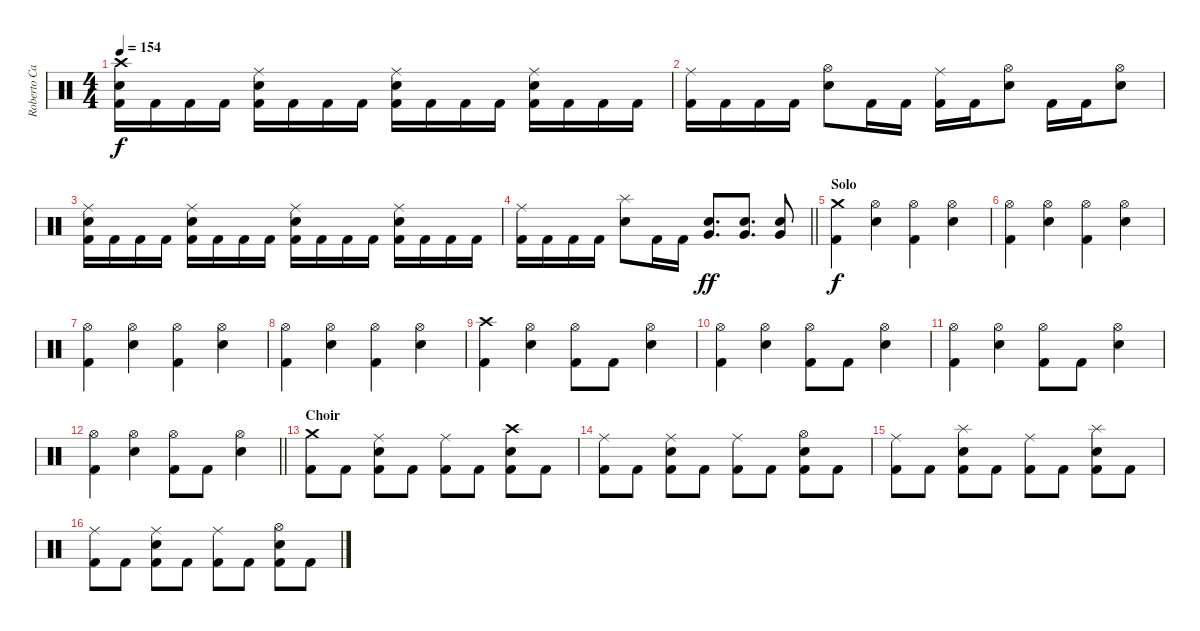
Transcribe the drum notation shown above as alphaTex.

\track ("Roberto Cappa - Drums" "Roberto Ca") {instrument percussion}
\staff
\articulation defaults
\ts (4 4)
\tempo 154
\clef neutral
\ks c
("Crash high (hit)" "Kick (hit) 2" "Electric Snare (hit)").16{dy f} "Kick (hit) 2".16 "Kick (hit) 2".16 "Kick (hit) 2".16 ("Ride (middle)" "Kick (hit) 2" "Electric Snare (hit)").16 "Kick (hit) 2".16 "Kick (hit) 2".16 "Kick (hit) 2".16 ("Ride (middle)" "Kick (hit) 2" "Electric Snare (hit)").16 "Kick (hit) 2".16 "Kick (hit) 2".16 "Kick (hit) 2".16 ("Ride (middle)" "Kick (hit) 2" "Electric Snare (hit)").16 "Kick (hit) 2".16 "Kick (hit) 2".16 "Kick (hit) 2".16 |
("Ride (middle)" "Kick (hit) 2").16 "Kick (hit) 2".16 "Kick (hit) 2".16 "Kick (hit) 2".16 ("Hi-Hat (open)" "Electric Snare (hit)").8 "Kick (hit) 2".16 "Kick (hit) 2".16 ("Ride (middle)" "Kick (hit) 2").16 "Kick (hit) 2".16 ("Hi-Hat (open)" "Electric Snare (hit)").8 "Kick (hit) 2".16 "Kick (hit) 2".16 ("Hi-Hat (open)" "Electric Snare (hit)").8 |
("Ride (middle)" "Kick (hit) 2" "Electric Snare (hit)").16 "Kick (hit) 2".16 "Kick (hit) 2".16 "Kick (hit) 2".16 ("Ride (middle)" "Kick (hit) 2" "Electric Snare (hit)").16 "Kick (hit) 2".16 "Kick (hit) 2".16 "Kick (hit) 2".16 ("Ride (middle)" "Kick (hit) 2" "Electric Snare (hit)").16 "Kick (hit) 2".16 "Kick (hit) 2".16 "Kick (hit) 2".16 ("Ride (middle)" "Kick (hit) 2" "Electric Snare (hit)").16 "Kick (hit) 2".16 "Kick (hit) 2".16 "Kick (hit) 2".16 |
\barLineRight lightlight
("Ride (middle)" "Kick (hit) 2").16 "Kick (hit) 2".16 "Kick (hit) 2".16 "Kick (hit) 2".16 ("Splash (hit)" "Electric Snare (hit)").8 "Kick (hit) 2".16 "Kick (hit) 2".16 ("Very Low Tom (hit)" "Electric Snare (hit)").8{d dy ff} ("Very Low Tom (hit)" "Electric Snare (hit)").8{d} ("Very Low Tom (hit)" "Electric Snare (hit)").8 |
\section ("" "Solo")
("Crash medium (hit)" "Kick (hit) 2").4{dy f} ("Hi-Hat (open)" "Electric Snare (hit)").4 ("Hi-Hat (open)" "Kick (hit) 2").4 ("Hi-Hat (open)" "Electric Snare (hit)").4 |
("Hi-Hat (open)" "Kick (hit) 2").4 ("Hi-Hat (open)" "Electric Snare (hit)").4 ("Hi-Hat (open)" "Kick (hit) 2").4 ("Hi-Hat (open)" "Electric Snare (hit)").4 |
("Hi-Hat (open)" "Kick (hit) 2").4 ("Hi-Hat (open)" "Electric Snare (hit)").4 ("Hi-Hat (open)" "Kick (hit) 2").4 ("Hi-Hat (open)" "Electric Snare (hit)").4 |
("Hi-Hat (open)" "Kick (hit) 2").4 ("Hi-Hat (open)" "Electric Snare (hit)").4 ("Hi-Hat (open)" "Kick (hit) 2").4 ("Hi-Hat (open)" "Electric Snare (hit)").4 |
("Crash high (hit)" "Kick (hit) 2").4 ("Hi-Hat (open)" "Electric Snare (hit)").4 ("Hi-Hat (open)" "Kick (hit) 2").8 "Kick (hit) 2".8 ("Hi-Hat (open)" "Electric Snare (hit)").4 |
("Hi-Hat (open)" "Kick (hit) 2").4 ("Hi-Hat (open)" "Electric Snare (hit)").4 ("Hi-Hat (open)" "Kick (hit) 2").8 "Kick (hit) 2".8 ("Hi-Hat (open)" "Electric Snare (hit)").4 |
("Hi-Hat (open)" "Kick (hit) 2").4 ("Hi-Hat (open)" "Electric Snare (hit)").4 ("Hi-Hat (open)" "Kick (hit) 2").8 "Kick (hit) 2".8 ("Hi-Hat (open)" "Electric Snare (hit)").4 |
\barLineRight lightlight
("Hi-Hat (open)" "Kick (hit) 2").4 ("Hi-Hat (open)" "Electric Snare (hit)").4 ("Hi-Hat (open)" "Kick (hit) 2").8 "Kick (hit) 2".8 ("Hi-Hat (open)" "Electric Snare (hit)").4 |
\section ("" "Choir")
("Crash medium (hit)" "Kick (hit) 2").8 "Kick (hit) 2".8 ("Ride (middle)" "Kick (hit) 2" "Electric Snare (hit)").8 "Kick (hit) 2".8 ("Ride (middle)" "Kick (hit) 2").8 "Kick (hit) 2".8 ("Crash high (hit)" "Kick (hit) 2" "Electric Snare (hit)").8 "Kick (hit) 2".8 |
("Ride (middle)" "Kick (hit) 2").8 "Kick (hit) 2".8 ("Ride (middle)" "Kick (hit) 2" "Electric Snare (hit)").8 "Kick (hit) 2".8 ("Ride (middle)" "Kick (hit) 2").8 "Kick (hit) 2".8 ("Hi-Hat (open)" "Kick (hit) 2" "Electric Snare (hit)").8 "Kick (hit) 2".8 |
("Ride (middle)" "Kick (hit) 2").8 "Kick (hit) 2".8 ("Splash (hit)" "Kick (hit) 2" "Electric Snare (hit)").8 "Kick (hit) 2".8 ("Ride (middle)" "Kick (hit) 2").8 "Kick (hit) 2".8 ("Splash (hit)" "Kick (hit) 2" "Electric Snare (hit)").8 "Kick (hit) 2".8 |
("Ride (middle)" "Kick (hit) 2").8 "Kick (hit) 2".8 ("Ride (middle)" "Kick (hit) 2" "Electric Snare (hit)").8 "Kick (hit) 2".8 ("Ride (middle)" "Kick (hit) 2").8 "Kick (hit) 2".8 ("Hi-Hat (open)" "Kick (hit) 2" "Electric Snare (hit)").8 "Kick (hit) 2".8
